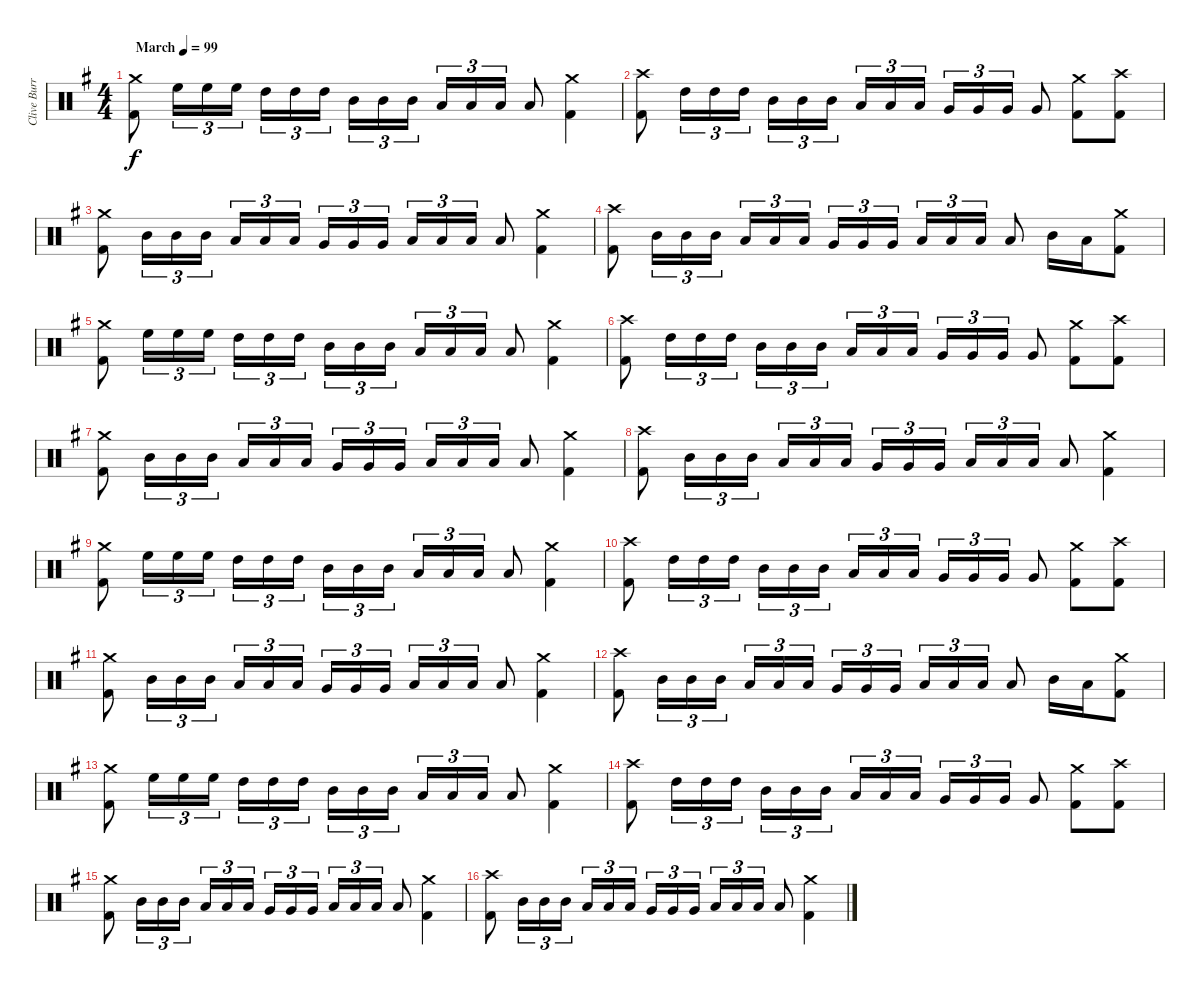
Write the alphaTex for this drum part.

\track ("Clive Burr" "Clive Burr") {instrument percussion}
\staff {score}
\articulation defaults
\ts (4 4)
\tempo (99 "March")
\clef neutral
\ks eminor
("Crash medium (hit)" "Kick (hit) 2").8{dy f} "High Floor Tom (hit)".16{tu (3 2)} "High Floor Tom (hit)".16{tu (3 2)} "High Floor Tom (hit)".16{tu (3 2)} "High Tom (hit)".16{tu (3 2)} "High Tom (hit)".16{tu (3 2)} "High Tom (hit)".16{tu (3 2) beam splitsecondary} "Mid Tom (hit)".16{tu (3 2)} "Mid Tom (hit)".16{tu (3 2)} "Mid Tom (hit)".16{tu (3 2)} "Low Tom (hit)".16{tu (3 2)} "Low Tom (hit)".16{tu (3 2)} "Low Tom (hit)".16{tu (3 2)} "Low Tom (hit)".8 ("Crash medium (hit)" "Kick (hit) 2").4 |
("Crash high (hit)" "Kick (hit) 2").8 "High Tom (hit)".16{tu (3 2)} "High Tom (hit)".16{tu (3 2)} "High Tom (hit)".16{tu (3 2)} "Mid Tom (hit)".16{tu (3 2)} "Mid Tom (hit)".16{tu (3 2)} "Mid Tom (hit)".16{tu (3 2) beam splitsecondary} "Low Tom (hit)".16{tu (3 2)} "Low Tom (hit)".16{tu (3 2)} "Low Tom (hit)".16{tu (3 2)} "Very Low Tom (hit)".16{tu (3 2)} "Very Low Tom (hit)".16{tu (3 2)} "Very Low Tom (hit)".16{tu (3 2)} "Very Low Tom (hit)".8 ("Crash medium (hit)" "Kick (hit) 2").8 ("Crash high (hit)" "Kick (hit) 2").8 |
("Crash medium (hit)" "Kick (hit) 2").8 "Mid Tom (hit)".16{tu (3 2)} "Mid Tom (hit)".16{tu (3 2)} "Mid Tom (hit)".16{tu (3 2)} "Low Tom (hit)".16{tu (3 2)} "Low Tom (hit)".16{tu (3 2)} "Low Tom (hit)".16{tu (3 2) beam splitsecondary} "Very Low Tom (hit)".16{tu (3 2)} "Very Low Tom (hit)".16{tu (3 2)} "Very Low Tom (hit)".16{tu (3 2)} "Low Floor Tom (hit)".16{tu (3 2)} "Low Floor Tom (hit)".16{tu (3 2)} "Low Floor Tom (hit)".16{tu (3 2)} "Low Floor Tom (hit)".8 ("Crash medium (hit)" "Kick (hit) 2").4 |
("Crash high (hit)" "Kick (hit) 2").8 "Mid Tom (hit)".16{tu (3 2)} "Mid Tom (hit)".16{tu (3 2)} "Mid Tom (hit)".16{tu (3 2)} "Low Tom (hit)".16{tu (3 2)} "Low Tom (hit)".16{tu (3 2)} "Low Tom (hit)".16{tu (3 2) beam splitsecondary} "Very Low Tom (hit)".16{tu (3 2)} "Very Low Tom (hit)".16{tu (3 2)} "Very Low Tom (hit)".16{tu (3 2)} "Low Floor Tom (hit)".16{tu (3 2)} "Low Floor Tom (hit)".16{tu (3 2)} "Low Floor Tom (hit)".16{tu (3 2)} "Low Floor Tom (hit)".8 "Mid Tom (hit)".16 "Low Tom (hit)".16 ("Crash medium (hit)" "Kick (hit) 2").8 |
("Crash medium (hit)" "Kick (hit) 2").8 "High Floor Tom (hit)".16{tu (3 2)} "High Floor Tom (hit)".16{tu (3 2)} "High Floor Tom (hit)".16{tu (3 2)} "High Tom (hit)".16{tu (3 2)} "High Tom (hit)".16{tu (3 2)} "High Tom (hit)".16{tu (3 2) beam splitsecondary} "Mid Tom (hit)".16{tu (3 2)} "Mid Tom (hit)".16{tu (3 2)} "Mid Tom (hit)".16{tu (3 2)} "Low Tom (hit)".16{tu (3 2)} "Low Tom (hit)".16{tu (3 2)} "Low Tom (hit)".16{tu (3 2)} "Low Tom (hit)".8 ("Crash medium (hit)" "Kick (hit) 2").4 |
("Crash high (hit)" "Kick (hit) 2").8 "High Tom (hit)".16{tu (3 2)} "High Tom (hit)".16{tu (3 2)} "High Tom (hit)".16{tu (3 2)} "Mid Tom (hit)".16{tu (3 2)} "Mid Tom (hit)".16{tu (3 2)} "Mid Tom (hit)".16{tu (3 2) beam splitsecondary} "Low Tom (hit)".16{tu (3 2)} "Low Tom (hit)".16{tu (3 2)} "Low Tom (hit)".16{tu (3 2)} "Very Low Tom (hit)".16{tu (3 2)} "Very Low Tom (hit)".16{tu (3 2)} "Very Low Tom (hit)".16{tu (3 2)} "Very Low Tom (hit)".8 ("Crash medium (hit)" "Kick (hit) 2").8 ("Crash high (hit)" "Kick (hit) 2").8 |
("Crash medium (hit)" "Kick (hit) 2").8 "Mid Tom (hit)".16{tu (3 2)} "Mid Tom (hit)".16{tu (3 2)} "Mid Tom (hit)".16{tu (3 2)} "Low Tom (hit)".16{tu (3 2)} "Low Tom (hit)".16{tu (3 2)} "Low Tom (hit)".16{tu (3 2) beam splitsecondary} "Very Low Tom (hit)".16{tu (3 2)} "Very Low Tom (hit)".16{tu (3 2)} "Very Low Tom (hit)".16{tu (3 2)} "Low Floor Tom (hit)".16{tu (3 2)} "Low Floor Tom (hit)".16{tu (3 2)} "Low Floor Tom (hit)".16{tu (3 2)} "Low Floor Tom (hit)".8 ("Crash medium (hit)" "Kick (hit) 2").4 |
("Crash high (hit)" "Kick (hit) 2").8 "Mid Tom (hit)".16{tu (3 2)} "Mid Tom (hit)".16{tu (3 2)} "Mid Tom (hit)".16{tu (3 2)} "Low Tom (hit)".16{tu (3 2)} "Low Tom (hit)".16{tu (3 2)} "Low Tom (hit)".16{tu (3 2) beam splitsecondary} "Very Low Tom (hit)".16{tu (3 2)} "Very Low Tom (hit)".16{tu (3 2)} "Very Low Tom (hit)".16{tu (3 2)} "Low Floor Tom (hit)".16{tu (3 2)} "Low Floor Tom (hit)".16{tu (3 2)} "Low Floor Tom (hit)".16{tu (3 2)} "Low Floor Tom (hit)".8 ("Crash medium (hit)" "Kick (hit) 2").4 |
("Crash medium (hit)" "Kick (hit) 2").8 "High Floor Tom (hit)".16{tu (3 2)} "High Floor Tom (hit)".16{tu (3 2)} "High Floor Tom (hit)".16{tu (3 2)} "High Tom (hit)".16{tu (3 2)} "High Tom (hit)".16{tu (3 2)} "High Tom (hit)".16{tu (3 2) beam splitsecondary} "Mid Tom (hit)".16{tu (3 2)} "Mid Tom (hit)".16{tu (3 2)} "Mid Tom (hit)".16{tu (3 2)} "Low Tom (hit)".16{tu (3 2)} "Low Tom (hit)".16{tu (3 2)} "Low Tom (hit)".16{tu (3 2)} "Low Tom (hit)".8 ("Crash medium (hit)" "Kick (hit) 2").4 |
("Crash high (hit)" "Kick (hit) 2").8 "High Tom (hit)".16{tu (3 2)} "High Tom (hit)".16{tu (3 2)} "High Tom (hit)".16{tu (3 2)} "Mid Tom (hit)".16{tu (3 2)} "Mid Tom (hit)".16{tu (3 2)} "Mid Tom (hit)".16{tu (3 2) beam splitsecondary} "Low Tom (hit)".16{tu (3 2)} "Low Tom (hit)".16{tu (3 2)} "Low Tom (hit)".16{tu (3 2)} "Very Low Tom (hit)".16{tu (3 2)} "Very Low Tom (hit)".16{tu (3 2)} "Very Low Tom (hit)".16{tu (3 2)} "Very Low Tom (hit)".8 ("Crash medium (hit)" "Kick (hit) 2").8 ("Crash high (hit)" "Kick (hit) 2").8 |
("Crash medium (hit)" "Kick (hit) 2").8 "Mid Tom (hit)".16{tu (3 2)} "Mid Tom (hit)".16{tu (3 2)} "Mid Tom (hit)".16{tu (3 2)} "Low Tom (hit)".16{tu (3 2)} "Low Tom (hit)".16{tu (3 2)} "Low Tom (hit)".16{tu (3 2) beam splitsecondary} "Very Low Tom (hit)".16{tu (3 2)} "Very Low Tom (hit)".16{tu (3 2)} "Very Low Tom (hit)".16{tu (3 2)} "Low Floor Tom (hit)".16{tu (3 2)} "Low Floor Tom (hit)".16{tu (3 2)} "Low Floor Tom (hit)".16{tu (3 2)} "Low Floor Tom (hit)".8 ("Crash medium (hit)" "Kick (hit) 2").4 |
("Crash high (hit)" "Kick (hit) 2").8 "Mid Tom (hit)".16{tu (3 2)} "Mid Tom (hit)".16{tu (3 2)} "Mid Tom (hit)".16{tu (3 2)} "Low Tom (hit)".16{tu (3 2)} "Low Tom (hit)".16{tu (3 2)} "Low Tom (hit)".16{tu (3 2) beam splitsecondary} "Very Low Tom (hit)".16{tu (3 2)} "Very Low Tom (hit)".16{tu (3 2)} "Very Low Tom (hit)".16{tu (3 2)} "Low Floor Tom (hit)".16{tu (3 2)} "Low Floor Tom (hit)".16{tu (3 2)} "Low Floor Tom (hit)".16{tu (3 2)} "Low Floor Tom (hit)".8 "Mid Tom (hit)".16 "Low Tom (hit)".16 ("Crash medium (hit)" "Kick (hit) 2").8 |
("Crash medium (hit)" "Kick (hit) 2").8 "High Floor Tom (hit)".16{tu (3 2)} "High Floor Tom (hit)".16{tu (3 2)} "High Floor Tom (hit)".16{tu (3 2)} "High Tom (hit)".16{tu (3 2)} "High Tom (hit)".16{tu (3 2)} "High Tom (hit)".16{tu (3 2) beam splitsecondary} "Mid Tom (hit)".16{tu (3 2)} "Mid Tom (hit)".16{tu (3 2)} "Mid Tom (hit)".16{tu (3 2)} "Low Tom (hit)".16{tu (3 2)} "Low Tom (hit)".16{tu (3 2)} "Low Tom (hit)".16{tu (3 2)} "Low Tom (hit)".8 ("Crash medium (hit)" "Kick (hit) 2").4 |
("Crash high (hit)" "Kick (hit) 2").8 "High Tom (hit)".16{tu (3 2)} "High Tom (hit)".16{tu (3 2)} "High Tom (hit)".16{tu (3 2)} "Mid Tom (hit)".16{tu (3 2)} "Mid Tom (hit)".16{tu (3 2)} "Mid Tom (hit)".16{tu (3 2) beam splitsecondary} "Low Tom (hit)".16{tu (3 2)} "Low Tom (hit)".16{tu (3 2)} "Low Tom (hit)".16{tu (3 2)} "Very Low Tom (hit)".16{tu (3 2)} "Very Low Tom (hit)".16{tu (3 2)} "Very Low Tom (hit)".16{tu (3 2)} "Very Low Tom (hit)".8 ("Crash medium (hit)" "Kick (hit) 2").8 ("Crash high (hit)" "Kick (hit) 2").8 |
("Crash medium (hit)" "Kick (hit) 2").8 "Mid Tom (hit)".16{tu (3 2)} "Mid Tom (hit)".16{tu (3 2)} "Mid Tom (hit)".16{tu (3 2)} "Low Tom (hit)".16{tu (3 2)} "Low Tom (hit)".16{tu (3 2)} "Low Tom (hit)".16{tu (3 2) beam splitsecondary} "Very Low Tom (hit)".16{tu (3 2)} "Very Low Tom (hit)".16{tu (3 2)} "Very Low Tom (hit)".16{tu (3 2)} "Low Floor Tom (hit)".16{tu (3 2)} "Low Floor Tom (hit)".16{tu (3 2)} "Low Floor Tom (hit)".16{tu (3 2)} "Low Floor Tom (hit)".8 ("Crash medium (hit)" "Kick (hit) 2").4 |
("Crash high (hit)" "Kick (hit) 2").8 "Mid Tom (hit)".16{tu (3 2)} "Mid Tom (hit)".16{tu (3 2)} "Mid Tom (hit)".16{tu (3 2)} "Low Tom (hit)".16{tu (3 2)} "Low Tom (hit)".16{tu (3 2)} "Low Tom (hit)".16{tu (3 2) beam splitsecondary} "Very Low Tom (hit)".16{tu (3 2)} "Very Low Tom (hit)".16{tu (3 2)} "Very Low Tom (hit)".16{tu (3 2)} "Low Floor Tom (hit)".16{tu (3 2)} "Low Floor Tom (hit)".16{tu (3 2)} "Low Floor Tom (hit)".16{tu (3 2)} "Low Floor Tom (hit)".8 ("Crash medium (hit)" "Kick (hit) 2").4
